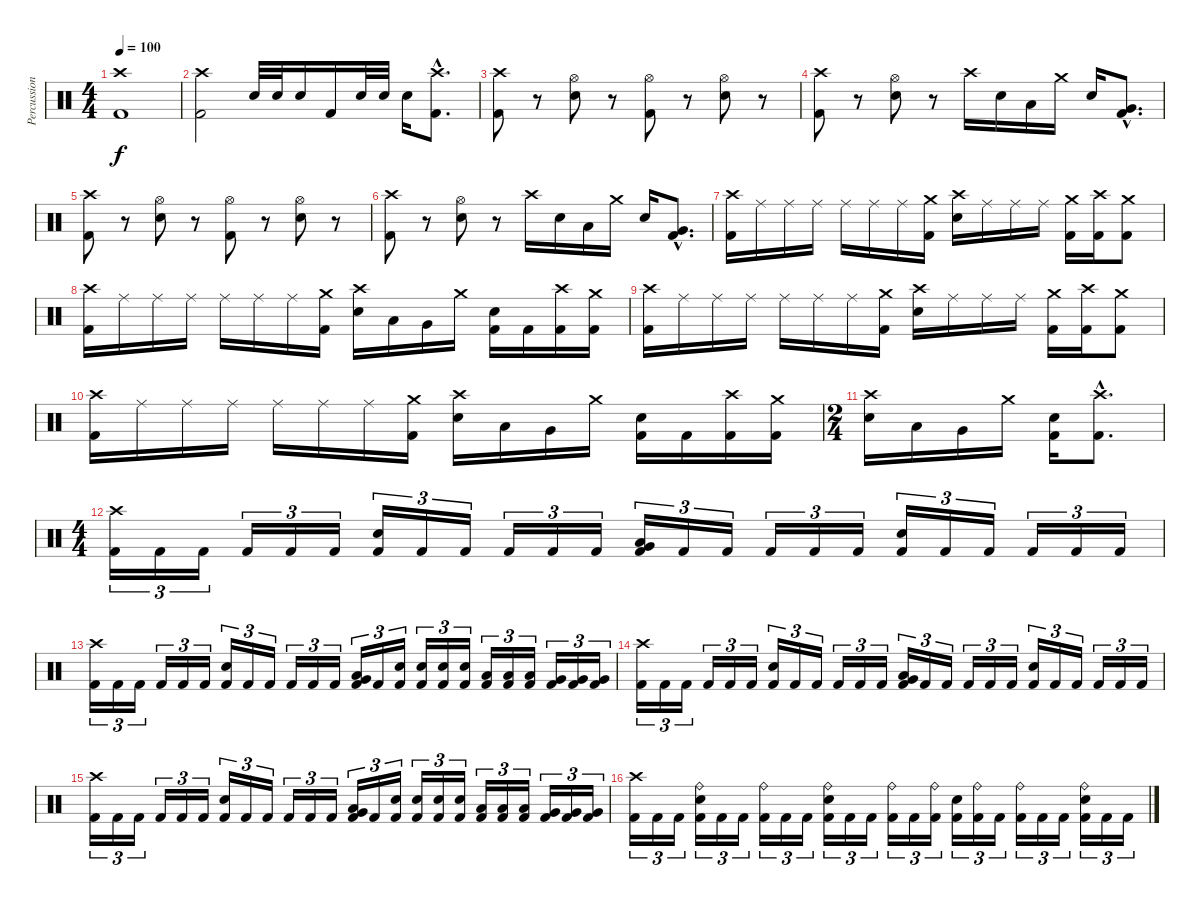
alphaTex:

\track ("Percussion" "Percussion") {instrument percussion}
\staff {score}
\articulation defaults
\ts (4 4)
\tempo 100
\clef neutral
\ks c
("Crash high (hit)" "Kick (hit) 2").1{dy f} |
("Crash high (hit)" "Kick (hit) 2").2 "Electric Snare (hit)".32 "Electric Snare (hit)".32 "Electric Snare (hit)".16 "Kick (hit) 2".16 "Electric Snare (hit)".32 "Electric Snare (hit)".32 "Electric Snare (hit)".16 ("Crash high (hit)"{hac} "Kick (hit) 2"{hac}).8{d} |
("Crash high (hit)" "Kick (hit) 2").8 r.8 ("Hi-Hat (open)" "Electric Snare (hit)").8 r.8 ("Hi-Hat (open)" "Kick (hit) 2").8 r.8 ("Hi-Hat (open)" "Electric Snare (hit)").8 r.8 |
("Crash high (hit)" "Kick (hit) 2").8 r.8 ("Hi-Hat (open)" "Electric Snare (hit)").8 r.8 "Crash high (hit)".16 "Electric Snare (hit)".16 "Low Tom (hit)".16 "Crash medium (hit)".16 "Electric Snare (hit)".16 ("Very Low Tom (hit)"{hac} "Kick (hit) 2"{hac}).8{d} |
("Crash high (hit)" "Kick (hit) 2").8 r.8 ("Hi-Hat (open)" "Electric Snare (hit)").8 r.8 ("Hi-Hat (open)" "Kick (hit) 2").8 r.8 ("Hi-Hat (open)" "Electric Snare (hit)").8 r.8 |
("Crash high (hit)" "Kick (hit) 2").8 r.8 ("Hi-Hat (open)" "Electric Snare (hit)").8 r.8 "Crash high (hit)".16 "Electric Snare (hit)".16 "Low Tom (hit)".16 "Crash medium (hit)".16 "Electric Snare (hit)".16 ("Very Low Tom (hit)"{hac} "Kick (hit) 2"{hac}).8{d} |
("Crash high (hit)" "Kick (hit) 2").16 "Ride (middle)".16 "Ride (middle)".16 "Ride (middle)".16 "Ride (middle)".16 "Ride (middle)".16 "Ride (middle)".16 ("Crash medium (hit)" "Kick (hit) 2").16 ("Crash high (hit)" "Electric Snare (hit)").16 "Ride (middle)".16 "Ride (middle)".16 "Ride (middle)".16 ("Crash medium (hit)" "Kick (hit) 2").16 ("Crash high (hit)" "Kick (hit) 2").16 ("Crash medium (hit)" "Kick (hit) 2").8 |
("Crash high (hit)" "Kick (hit) 2").16 "Ride (middle)".16 "Ride (middle)".16 "Ride (middle)".16 "Ride (middle)".16 "Ride (middle)".16 "Ride (middle)".16 ("Crash medium (hit)" "Kick (hit) 2").16 ("Crash high (hit)" "Electric Snare (hit)").16 "Low Tom (hit)".16 "Very Low Tom (hit)".16 "Crash medium (hit)".16 ("Electric Snare (hit)" "Kick (hit) 2").16 "Kick (hit) 2".16 ("Crash high (hit)" "Kick (hit) 2").16 ("Crash medium (hit)" "Kick (hit) 2").16 |
("Crash high (hit)" "Kick (hit) 2").16 "Ride (middle)".16 "Ride (middle)".16 "Ride (middle)".16 "Ride (middle)".16 "Ride (middle)".16 "Ride (middle)".16 ("Crash medium (hit)" "Kick (hit) 2").16 ("Crash high (hit)" "Electric Snare (hit)").16 "Ride (middle)".16 "Ride (middle)".16 "Ride (middle)".16 ("Crash medium (hit)" "Kick (hit) 2").16 ("Crash high (hit)" "Kick (hit) 2").16 ("Crash medium (hit)" "Kick (hit) 2").8 |
("Crash high (hit)" "Kick (hit) 2").16 "Ride (middle)".16 "Ride (middle)".16 "Ride (middle)".16 "Ride (middle)".16 "Ride (middle)".16 "Ride (middle)".16 ("Crash medium (hit)" "Kick (hit) 2").16 ("Crash high (hit)" "Electric Snare (hit)").16 "Low Tom (hit)".16 "Very Low Tom (hit)".16 "Crash medium (hit)".16 ("Electric Snare (hit)" "Kick (hit) 2").16 "Kick (hit) 2".16 ("Crash high (hit)" "Kick (hit) 2").16 ("Crash medium (hit)" "Kick (hit) 2").16 |
\ts (2 4)
("Crash high (hit)" "Electric Snare (hit)").16 "Low Tom (hit)".16 "Very Low Tom (hit)".16 "Crash medium (hit)".16 ("Electric Snare (hit)" "Kick (hit) 2").16 ("Crash high (hit)"{hac} "Kick (hit) 2"{hac}).8{d} |
\ts (4 4)
("Crash high (hit)" "Kick (hit) 2").16{tu (3 2)} "Kick (hit) 2".16{tu (3 2)} "Kick (hit) 2".16{tu (3 2)} "Kick (hit) 2".16{tu (3 2)} "Kick (hit) 2".16{tu (3 2)} "Kick (hit) 2".16{tu (3 2)} ("Electric Snare (hit)" "Kick (hit) 2").16{tu (3 2)} "Kick (hit) 2".16{tu (3 2)} "Kick (hit) 2".16{tu (3 2)} "Kick (hit) 2".16{tu (3 2)} "Kick (hit) 2".16{tu (3 2)} "Kick (hit) 2".16{tu (3 2)} ("Very Low Tom (hit)" "Low Tom (hit)" "Kick (hit) 2").16{tu (3 2)} "Kick (hit) 2".16{tu (3 2)} "Kick (hit) 2".16{tu (3 2)} "Kick (hit) 2".16{tu (3 2)} "Kick (hit) 2".16{tu (3 2)} "Kick (hit) 2".16{tu (3 2)} ("Electric Snare (hit)" "Kick (hit) 2").16{tu (3 2)} "Kick (hit) 2".16{tu (3 2)} "Kick (hit) 2".16{tu (3 2)} "Kick (hit) 2".16{tu (3 2)} "Kick (hit) 2".16{tu (3 2)} "Kick (hit) 2".16{tu (3 2)} |
("Crash high (hit)" "Kick (hit) 2").16{tu (3 2)} "Kick (hit) 2".16{tu (3 2)} "Kick (hit) 2".16{tu (3 2)} "Kick (hit) 2".16{tu (3 2)} "Kick (hit) 2".16{tu (3 2)} "Kick (hit) 2".16{tu (3 2)} ("Electric Snare (hit)" "Kick (hit) 2").16{tu (3 2)} "Kick (hit) 2".16{tu (3 2)} "Kick (hit) 2".16{tu (3 2)} "Kick (hit) 2".16{tu (3 2)} "Kick (hit) 2".16{tu (3 2)} "Kick (hit) 2".16{tu (3 2)} ("Very Low Tom (hit)" "Low Tom (hit)" "Kick (hit) 2").16{tu (3 2)} "Kick (hit) 2".16{tu (3 2)} ("Electric Snare (hit)" "Kick (hit) 2").16{tu (3 2)} ("Electric Snare (hit)" "Kick (hit) 2").16{tu (3 2)} ("Electric Snare (hit)" "Kick (hit) 2").16{tu (3 2)} ("Electric Snare (hit)" "Kick (hit) 2").16{tu (3 2)} ("Low Tom (hit)" "Kick (hit) 2").16{tu (3 2)} ("Low Tom (hit)" "Kick (hit) 2").16{tu (3 2)} ("Low Tom (hit)" "Kick (hit) 2").16{tu (3 2)} ("Very Low Tom (hit)" "Kick (hit) 2").16{tu (3 2)} ("Very Low Tom (hit)" "Kick (hit) 2").16{tu (3 2)} ("Very Low Tom (hit)" "Kick (hit) 2").16{tu (3 2)} |
("Crash high (hit)" "Kick (hit) 2").16{tu (3 2)} "Kick (hit) 2".16{tu (3 2)} "Kick (hit) 2".16{tu (3 2)} "Kick (hit) 2".16{tu (3 2)} "Kick (hit) 2".16{tu (3 2)} "Kick (hit) 2".16{tu (3 2)} ("Electric Snare (hit)" "Kick (hit) 2").16{tu (3 2)} "Kick (hit) 2".16{tu (3 2)} "Kick (hit) 2".16{tu (3 2)} "Kick (hit) 2".16{tu (3 2)} "Kick (hit) 2".16{tu (3 2)} "Kick (hit) 2".16{tu (3 2)} ("Very Low Tom (hit)" "Low Tom (hit)" "Kick (hit) 2").16{tu (3 2)} "Kick (hit) 2".16{tu (3 2)} "Kick (hit) 2".16{tu (3 2)} "Kick (hit) 2".16{tu (3 2)} "Kick (hit) 2".16{tu (3 2)} "Kick (hit) 2".16{tu (3 2)} ("Electric Snare (hit)" "Kick (hit) 2").16{tu (3 2)} "Kick (hit) 2".16{tu (3 2)} "Kick (hit) 2".16{tu (3 2)} "Kick (hit) 2".16{tu (3 2)} "Kick (hit) 2".16{tu (3 2)} "Kick (hit) 2".16{tu (3 2)} |
("Crash high (hit)" "Kick (hit) 2").16{tu (3 2)} "Kick (hit) 2".16{tu (3 2)} "Kick (hit) 2".16{tu (3 2)} "Kick (hit) 2".16{tu (3 2)} "Kick (hit) 2".16{tu (3 2)} "Kick (hit) 2".16{tu (3 2)} ("Electric Snare (hit)" "Kick (hit) 2").16{tu (3 2)} "Kick (hit) 2".16{tu (3 2)} "Kick (hit) 2".16{tu (3 2)} "Kick (hit) 2".16{tu (3 2)} "Kick (hit) 2".16{tu (3 2)} "Kick (hit) 2".16{tu (3 2)} ("Very Low Tom (hit)" "Low Tom (hit)" "Kick (hit) 2").16{tu (3 2)} "Kick (hit) 2".16{tu (3 2)} ("Electric Snare (hit)" "Kick (hit) 2").16{tu (3 2)} ("Electric Snare (hit)" "Kick (hit) 2").16{tu (3 2)} ("Electric Snare (hit)" "Kick (hit) 2").16{tu (3 2)} ("Electric Snare (hit)" "Kick (hit) 2").16{tu (3 2)} ("Low Tom (hit)" "Kick (hit) 2").16{tu (3 2)} ("Low Tom (hit)" "Kick (hit) 2").16{tu (3 2)} ("Low Tom (hit)" "Kick (hit) 2").16{tu (3 2)} ("Very Low Tom (hit)" "Kick (hit) 2").16{tu (3 2)} ("Very Low Tom (hit)" "Kick (hit) 2").16{tu (3 2)} ("Very Low Tom (hit)" "Kick (hit) 2").16{tu (3 2)} |
("Crash high (hit)" "Kick (hit) 2").16{tu (3 2)} "Kick (hit) 2".16{tu (3 2)} "Kick (hit) 2".16{tu (3 2)} ("Ride (bell)" "Electric Snare (hit)" "Kick (hit) 2").16{tu (3 2)} "Kick (hit) 2".16{tu (3 2)} "Kick (hit) 2".16{tu (3 2)} ("Ride (bell)" "Kick (hit) 2").16{tu (3 2)} "Kick (hit) 2".16{tu (3 2)} "Kick (hit) 2".16{tu (3 2)} ("Ride (bell)" "Electric Snare (hit)" "Kick (hit) 2").16{tu (3 2)} "Kick (hit) 2".16{tu (3 2)} "Kick (hit) 2".16{tu (3 2)} ("Ride (bell)" "Kick (hit) 2").16{tu (3 2)} "Kick (hit) 2".16{tu (3 2)} ("Ride (bell)" "Kick (hit) 2").16{tu (3 2)} ("Electric Snare (hit)" "Kick (hit) 2").16{tu (3 2)} ("Ride (bell)" "Kick (hit) 2").16{tu (3 2)} "Kick (hit) 2".16{tu (3 2)} ("Ride (bell)" "Kick (hit) 2").16{tu (3 2)} "Kick (hit) 2".16{tu (3 2)} "Kick (hit) 2".16{tu (3 2)} ("Ride (bell)" "Electric Snare (hit)" "Kick (hit) 2").16{tu (3 2)} "Kick (hit) 2".16{tu (3 2)} "Kick (hit) 2".16{tu (3 2)}
